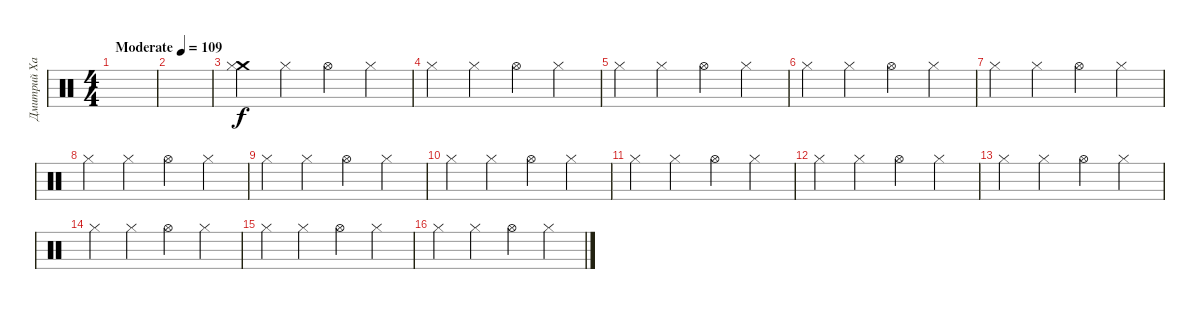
\track ("Дмитрий Хакимов" "Дмитрий Ха") {instrument percussion}
\staff {score}
\articulation defaults
\ts (4 4)
\tempo (109 "Moderate")
\clef neutral
\ks c
|
|
("Crash medium (hit)" "Hi-Hat (closed)").4 "Hi-Hat (closed)".4 "Hi-Hat (open)".4 "Hi-Hat (closed)".4 |
"Hi-Hat (closed)".4 "Hi-Hat (closed)".4 "Hi-Hat (open)".4 "Hi-Hat (closed)".4 |
"Hi-Hat (closed)".4 "Hi-Hat (closed)".4 "Hi-Hat (open)".4 "Hi-Hat (closed)".4 |
"Hi-Hat (closed)".4 "Hi-Hat (closed)".4 "Hi-Hat (open)".4 "Hi-Hat (closed)".4 |
"Hi-Hat (closed)".4 "Hi-Hat (closed)".4 "Hi-Hat (open)".4 "Hi-Hat (closed)".4 |
"Hi-Hat (closed)".4 "Hi-Hat (closed)".4 "Hi-Hat (open)".4 "Hi-Hat (closed)".4 |
"Hi-Hat (closed)".4 "Hi-Hat (closed)".4 "Hi-Hat (open)".4 "Hi-Hat (closed)".4 |
"Hi-Hat (closed)".4 "Hi-Hat (closed)".4 "Hi-Hat (open)".4 "Hi-Hat (closed)".4 |
"Hi-Hat (closed)".4 "Hi-Hat (closed)".4 "Hi-Hat (open)".4 "Hi-Hat (closed)".4 |
"Hi-Hat (closed)".4 "Hi-Hat (closed)".4 "Hi-Hat (open)".4 "Hi-Hat (closed)".4 |
"Hi-Hat (closed)".4 "Hi-Hat (closed)".4 "Hi-Hat (open)".4 "Hi-Hat (closed)".4 |
"Hi-Hat (closed)".4 "Hi-Hat (closed)".4 "Hi-Hat (open)".4 "Hi-Hat (closed)".4 |
"Hi-Hat (closed)".4 "Hi-Hat (closed)".4 "Hi-Hat (open)".4 "Hi-Hat (closed)".4 |
"Hi-Hat (closed)".4 "Hi-Hat (closed)".4 "Hi-Hat (open)".4 "Hi-Hat (closed)".4
